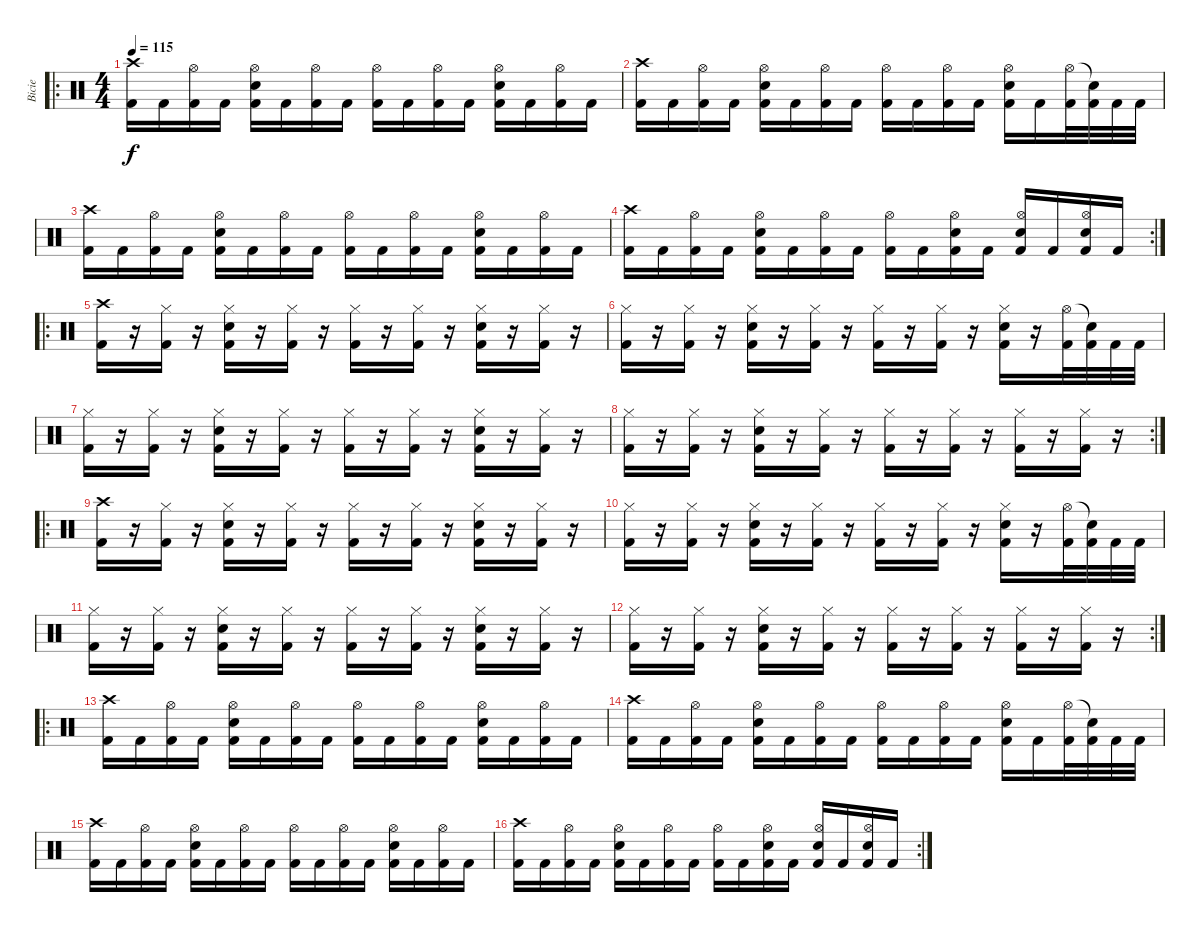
\track ("Bicie" "Bicie") {instrument percussion}
\staff {score}
\articulation defaults
\ro
\ts (4 4)
\tempo 115
\clef neutral
\ks c
("Crash high (hit)" "Kick (hit) 2").16{dy f} "Kick (hit) 2".16 ("Hi-Hat (open)" "Kick (hit) 2").16 "Kick (hit) 2".16 ("Hi-Hat (open)" "Electric Snare (hit)" "Kick (hit) 2").16 "Kick (hit) 2".16 ("Hi-Hat (open)" "Kick (hit) 2").16 "Kick (hit) 2".16 ("Hi-Hat (open)" "Kick (hit) 2").16 "Kick (hit) 2".16 ("Hi-Hat (open)" "Kick (hit) 2").16 "Kick (hit) 2".16 ("Hi-Hat (open)" "Electric Snare (hit)" "Kick (hit) 2").16 "Kick (hit) 2".16 ("Hi-Hat (open)" "Kick (hit) 2").16 "Kick (hit) 2".16 |
("Crash high (hit)" "Kick (hit) 2").16 "Kick (hit) 2".16 ("Hi-Hat (open)" "Kick (hit) 2").16 "Kick (hit) 2".16 ("Hi-Hat (open)" "Electric Snare (hit)" "Kick (hit) 2").16 "Kick (hit) 2".16 ("Hi-Hat (open)" "Kick (hit) 2").16 "Kick (hit) 2".16 ("Hi-Hat (open)" "Kick (hit) 2").16 "Kick (hit) 2".16 ("Hi-Hat (open)" "Kick (hit) 2").16 "Kick (hit) 2".16 ("Hi-Hat (open)" "Electric Snare (hit)" "Kick (hit) 2").16 "Kick (hit) 2".16 ("Hi-Hat (open)" "Kick (hit) 2").32 ("Snare (hit)"{t} "Kick (hit) 2").32 "Kick (hit) 2".32 "Kick (hit) 2".32 |
("Crash high (hit)" "Kick (hit) 2").16 "Kick (hit) 2".16 ("Hi-Hat (open)" "Kick (hit) 2").16 "Kick (hit) 2".16 ("Hi-Hat (open)" "Electric Snare (hit)" "Kick (hit) 2").16 "Kick (hit) 2".16 ("Hi-Hat (open)" "Kick (hit) 2").16 "Kick (hit) 2".16 ("Hi-Hat (open)" "Kick (hit) 2").16 "Kick (hit) 2".16 ("Hi-Hat (open)" "Kick (hit) 2").16 "Kick (hit) 2".16 ("Hi-Hat (open)" "Electric Snare (hit)" "Kick (hit) 2").16 "Kick (hit) 2".16 ("Hi-Hat (open)" "Kick (hit) 2").16 "Kick (hit) 2".16 |
\rc 2
("Crash high (hit)" "Kick (hit) 2").16 "Kick (hit) 2".16 ("Hi-Hat (open)" "Kick (hit) 2").16 "Kick (hit) 2".16 ("Hi-Hat (open)" "Electric Snare (hit)" "Kick (hit) 2").16 "Kick (hit) 2".16 ("Hi-Hat (open)" "Kick (hit) 2").16 "Kick (hit) 2".16 ("Hi-Hat (open)" "Kick (hit) 2").16 "Kick (hit) 2".16 ("Hi-Hat (open)" "Electric Snare (hit)" "Kick (hit) 2").16 "Kick (hit) 2".16 ("Hi-Hat (open)" "Electric Snare (hit)" "Kick (hit) 2").16 "Kick (hit) 2".16 ("Hi-Hat (open)" "Electric Snare (hit)" "Kick (hit) 2").16 "Kick (hit) 2".16 |
\ro
("Crash high (hit)" "Kick (hit) 2").16 r.16 ("Hi-Hat (closed)" "Kick (hit) 2").16 r.16 ("Hi-Hat (closed)" "Electric Snare (hit)" "Kick (hit) 2").16 r.16 ("Hi-Hat (closed)" "Kick (hit) 2").16 r.16 ("Hi-Hat (closed)" "Kick (hit) 2").16 r.16 ("Hi-Hat (closed)" "Kick (hit) 2").16 r.16 ("Hi-Hat (closed)" "Electric Snare (hit)" "Kick (hit) 2").16 r.16 ("Hi-Hat (closed)" "Kick (hit) 2").16 r.16 |
("Hi-Hat (closed)" "Kick (hit) 2").16 r.16 ("Hi-Hat (closed)" "Kick (hit) 2").16 r.16 ("Hi-Hat (closed)" "Electric Snare (hit)" "Kick (hit) 2").16 r.16 ("Hi-Hat (closed)" "Kick (hit) 2").16 r.16 ("Hi-Hat (closed)" "Kick (hit) 2").16 r.16 ("Hi-Hat (closed)" "Kick (hit) 2").16 r.16 ("Hi-Hat (closed)" "Electric Snare (hit)" "Kick (hit) 2").16 r.16 ("Hi-Hat (open)" "Kick (hit) 2").32 ("Snare (hit)"{t} "Kick (hit) 2").32 "Kick (hit) 2".32 "Kick (hit) 2".32 |
("Hi-Hat (closed)" "Kick (hit) 2").16 r.16 ("Hi-Hat (closed)" "Kick (hit) 2").16 r.16 ("Hi-Hat (closed)" "Electric Snare (hit)" "Kick (hit) 2").16 r.16 ("Hi-Hat (closed)" "Kick (hit) 2").16 r.16 ("Hi-Hat (closed)" "Kick (hit) 2").16 r.16 ("Hi-Hat (closed)" "Kick (hit) 2").16 r.16 ("Hi-Hat (closed)" "Electric Snare (hit)" "Kick (hit) 2").16 r.16 ("Hi-Hat (closed)" "Kick (hit) 2").16 r.16 |
\rc 2
("Hi-Hat (closed)" "Kick (hit) 2").16 r.16 ("Hi-Hat (closed)" "Kick (hit) 2").16 r.16 ("Hi-Hat (closed)" "Electric Snare (hit)" "Kick (hit) 2").16 r.16 ("Hi-Hat (closed)" "Kick (hit) 2").16 r.16 ("Hi-Hat (closed)" "Kick (hit) 2").16 r.16 ("Hi-Hat (closed)" "Kick (hit) 2").16 r.16 ("Hi-Hat (closed)" "Kick (hit) 2").16 r.16 ("Hi-Hat (closed)" "Kick (hit) 2").16 r.16 |
\ro
("Crash high (hit)" "Kick (hit) 2").16 r.16 ("Hi-Hat (closed)" "Kick (hit) 2").16 r.16 ("Hi-Hat (closed)" "Electric Snare (hit)" "Kick (hit) 2").16 r.16 ("Hi-Hat (closed)" "Kick (hit) 2").16 r.16 ("Hi-Hat (closed)" "Kick (hit) 2").16 r.16 ("Hi-Hat (closed)" "Kick (hit) 2").16 r.16 ("Hi-Hat (closed)" "Electric Snare (hit)" "Kick (hit) 2").16 r.16 ("Hi-Hat (closed)" "Kick (hit) 2").16 r.16 |
("Hi-Hat (closed)" "Kick (hit) 2").16 r.16 ("Hi-Hat (closed)" "Kick (hit) 2").16 r.16 ("Hi-Hat (closed)" "Electric Snare (hit)" "Kick (hit) 2").16 r.16 ("Hi-Hat (closed)" "Kick (hit) 2").16 r.16 ("Hi-Hat (closed)" "Kick (hit) 2").16 r.16 ("Hi-Hat (closed)" "Kick (hit) 2").16 r.16 ("Hi-Hat (closed)" "Electric Snare (hit)" "Kick (hit) 2").16 r.16 ("Hi-Hat (open)" "Kick (hit) 2").32 ("Snare (hit)"{t} "Kick (hit) 2").32 "Kick (hit) 2".32 "Kick (hit) 2".32 |
("Hi-Hat (closed)" "Kick (hit) 2").16 r.16 ("Hi-Hat (closed)" "Kick (hit) 2").16 r.16 ("Hi-Hat (closed)" "Electric Snare (hit)" "Kick (hit) 2").16 r.16 ("Hi-Hat (closed)" "Kick (hit) 2").16 r.16 ("Hi-Hat (closed)" "Kick (hit) 2").16 r.16 ("Hi-Hat (closed)" "Kick (hit) 2").16 r.16 ("Hi-Hat (closed)" "Electric Snare (hit)" "Kick (hit) 2").16 r.16 ("Hi-Hat (closed)" "Kick (hit) 2").16 r.16 |
\rc 2
("Hi-Hat (closed)" "Kick (hit) 2").16 r.16 ("Hi-Hat (closed)" "Kick (hit) 2").16 r.16 ("Hi-Hat (closed)" "Electric Snare (hit)" "Kick (hit) 2").16 r.16 ("Hi-Hat (closed)" "Kick (hit) 2").16 r.16 ("Hi-Hat (closed)" "Kick (hit) 2").16 r.16 ("Hi-Hat (closed)" "Kick (hit) 2").16 r.16 ("Hi-Hat (closed)" "Kick (hit) 2").16 r.16 ("Hi-Hat (closed)" "Kick (hit) 2").16 r.16 |
\ro
("Crash high (hit)" "Kick (hit) 2").16 "Kick (hit) 2".16 ("Hi-Hat (open)" "Kick (hit) 2").16 "Kick (hit) 2".16 ("Hi-Hat (open)" "Electric Snare (hit)" "Kick (hit) 2").16 "Kick (hit) 2".16 ("Hi-Hat (open)" "Kick (hit) 2").16 "Kick (hit) 2".16 ("Hi-Hat (open)" "Kick (hit) 2").16 "Kick (hit) 2".16 ("Hi-Hat (open)" "Kick (hit) 2").16 "Kick (hit) 2".16 ("Hi-Hat (open)" "Electric Snare (hit)" "Kick (hit) 2").16 "Kick (hit) 2".16 ("Hi-Hat (open)" "Kick (hit) 2").16 "Kick (hit) 2".16 |
("Crash high (hit)" "Kick (hit) 2").16 "Kick (hit) 2".16 ("Hi-Hat (open)" "Kick (hit) 2").16 "Kick (hit) 2".16 ("Hi-Hat (open)" "Electric Snare (hit)" "Kick (hit) 2").16 "Kick (hit) 2".16 ("Hi-Hat (open)" "Kick (hit) 2").16 "Kick (hit) 2".16 ("Hi-Hat (open)" "Kick (hit) 2").16 "Kick (hit) 2".16 ("Hi-Hat (open)" "Kick (hit) 2").16 "Kick (hit) 2".16 ("Hi-Hat (open)" "Electric Snare (hit)" "Kick (hit) 2").16 "Kick (hit) 2".16 ("Hi-Hat (open)" "Kick (hit) 2").32 ("Snare (hit)"{t} "Kick (hit) 2").32 "Kick (hit) 2".32 "Kick (hit) 2".32 |
("Crash high (hit)" "Kick (hit) 2").16 "Kick (hit) 2".16 ("Hi-Hat (open)" "Kick (hit) 2").16 "Kick (hit) 2".16 ("Hi-Hat (open)" "Electric Snare (hit)" "Kick (hit) 2").16 "Kick (hit) 2".16 ("Hi-Hat (open)" "Kick (hit) 2").16 "Kick (hit) 2".16 ("Hi-Hat (open)" "Kick (hit) 2").16 "Kick (hit) 2".16 ("Hi-Hat (open)" "Kick (hit) 2").16 "Kick (hit) 2".16 ("Hi-Hat (open)" "Electric Snare (hit)" "Kick (hit) 2").16 "Kick (hit) 2".16 ("Hi-Hat (open)" "Kick (hit) 2").16 "Kick (hit) 2".16 |
\rc 2
("Crash high (hit)" "Kick (hit) 2").16 "Kick (hit) 2".16 ("Hi-Hat (open)" "Kick (hit) 2").16 "Kick (hit) 2".16 ("Hi-Hat (open)" "Electric Snare (hit)" "Kick (hit) 2").16 "Kick (hit) 2".16 ("Hi-Hat (open)" "Kick (hit) 2").16 "Kick (hit) 2".16 ("Hi-Hat (open)" "Kick (hit) 2").16 "Kick (hit) 2".16 ("Hi-Hat (open)" "Electric Snare (hit)" "Kick (hit) 2").16 "Kick (hit) 2".16 ("Hi-Hat (open)" "Electric Snare (hit)" "Kick (hit) 2").16 "Kick (hit) 2".16 ("Hi-Hat (open)" "Electric Snare (hit)" "Kick (hit) 2").16 "Kick (hit) 2".16
